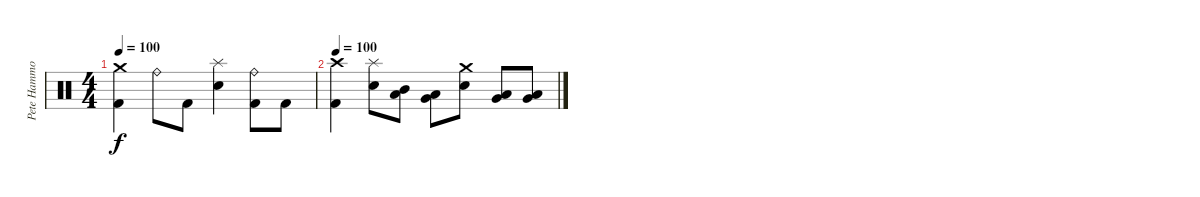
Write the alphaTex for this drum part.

\track ("Pete Hammoura" "Pete Hammo") {instrument percussion}
\staff {score}
\articulation defaults
\ts (4 4)
\tempo 100
\clef neutral
\ks c
("Crash medium (hit)" "Kick (hit) 2").4{dy f} "Ride (bell)".8 "Kick (hit) 2".8 ("Splash (hit)" "Electric Snare (hit)").4 ("Ride (bell)" "Kick (hit) 2").8 "Kick (hit) 2".8 |
\tempo 100
("Crash high (hit)" "Kick (hit) 2").4 ("Splash (hit)" "Electric Snare (hit)").8 ("Mid Tom (hit)" "Low Tom (hit)").8 ("Low Tom (hit)" "Very Low Tom (hit)").8 ("Crash medium (hit)" "Electric Snare (hit)").8 ("Low Tom (hit)" "Very Low Tom (hit)").8 ("Very Low Tom (hit)" "Low Floor Tom (hit)").8
